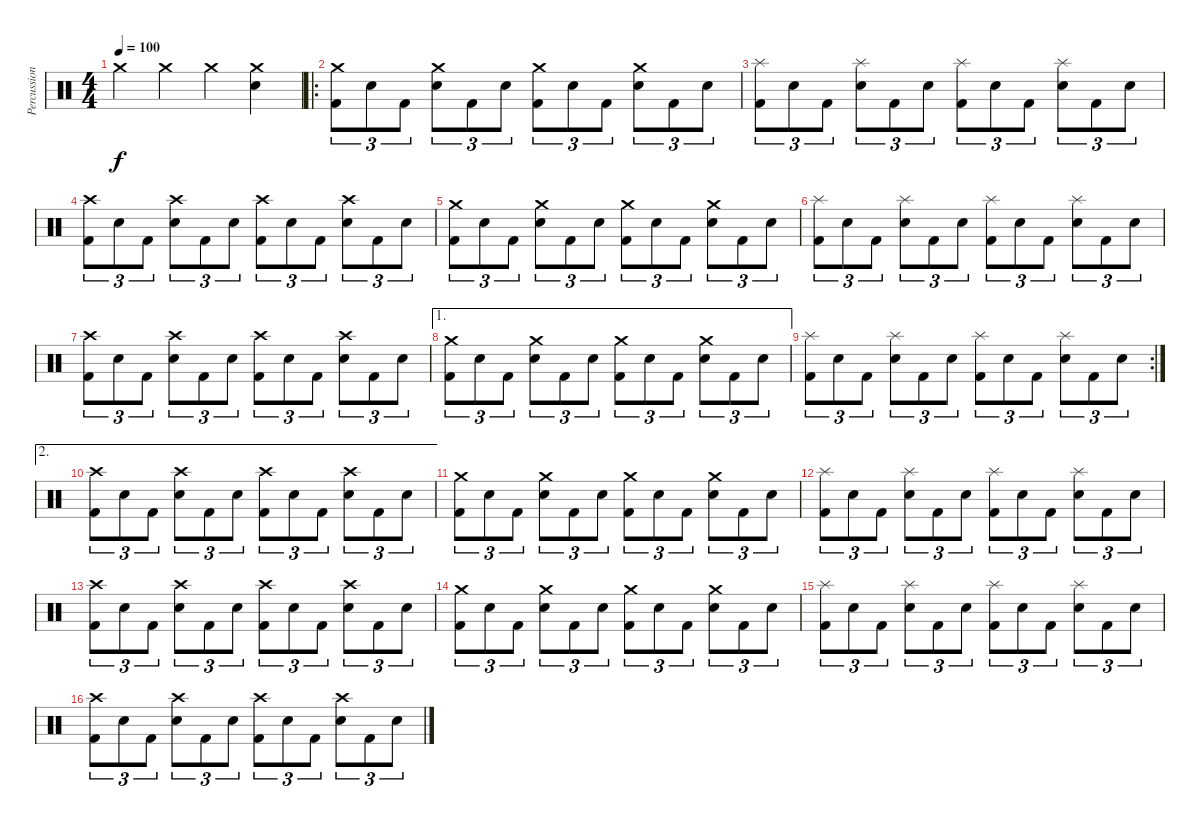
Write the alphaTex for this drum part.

\track ("Percussion" "Percussion") {instrument percussion}
\staff {score}
\articulation defaults
\ts (4 4)
\tempo 100
\clef neutral
\ks c "Crash medium (hit)".4{dy f} "Crash medium (hit)".4 "Crash medium (hit)".4
("Crash medium (hit)" "Snare (hit) 2").4 |
\ro
("Crash medium (hit)" "Kick (hit) 2").8{tu (3 2)} "Snare (hit) 2".8{tu (3 2)} "Kick (hit) 2".8{tu (3 2)} ("Crash medium (hit)" "Snare (hit) 2").8{tu (3 2)} "Kick (hit) 2".8{tu (3 2)} "Snare (hit) 2".8{tu (3 2)} ("Crash medium (hit)" "Kick (hit) 2").8{tu (3 2)} "Snare (hit) 2".8{tu (3 2)} "Kick (hit) 2".8{tu (3 2)} ("Crash medium (hit)" "Snare (hit) 2").8{tu (3 2)} "Kick (hit) 2".8{tu (3 2)} "Snare (hit) 2".8{tu (3 2)} |
("Splash (hit)" "Kick (hit) 2").8{tu (3 2)} "Snare (hit) 2".8{tu (3 2)} "Kick (hit) 2".8{tu (3 2)} ("Splash (hit)" "Snare (hit) 2").8{tu (3 2)} "Kick (hit) 2".8{tu (3 2)} "Snare (hit) 2".8{tu (3 2)} ("Splash (hit)" "Kick (hit) 2").8{tu (3 2)} "Snare (hit) 2".8{tu (3 2)} "Kick (hit) 2".8{tu (3 2)} ("Splash (hit)" "Snare (hit) 2").8{tu (3 2)} "Kick (hit) 2".8{tu (3 2)} "Snare (hit) 2".8{tu (3 2)} |
("Crash high (hit)" "Kick (hit) 2").8{tu (3 2)} "Snare (hit) 2".8{tu (3 2)} "Kick (hit) 2".8{tu (3 2)} ("Crash high (hit)" "Snare (hit) 2").8{tu (3 2)} "Kick (hit) 2".8{tu (3 2)} "Snare (hit) 2".8{tu (3 2)} ("Crash high (hit)" "Kick (hit) 2").8{tu (3 2)} "Snare (hit) 2".8{tu (3 2)} "Kick (hit) 2".8{tu (3 2)} ("Crash high (hit)" "Snare (hit) 2").8{tu (3 2)} "Kick (hit) 2".8{tu (3 2)} "Snare (hit) 2".8{tu (3 2)} |
("Crash medium (hit)" "Kick (hit) 2").8{tu (3 2)} "Snare (hit) 2".8{tu (3 2)} "Kick (hit) 2".8{tu (3 2)} ("Crash medium (hit)" "Snare (hit) 2").8{tu (3 2)} "Kick (hit) 2".8{tu (3 2)} "Snare (hit) 2".8{tu (3 2)} ("Crash medium (hit)" "Kick (hit) 2").8{tu (3 2)} "Snare (hit) 2".8{tu (3 2)} "Kick (hit) 2".8{tu (3 2)} ("Crash medium (hit)" "Snare (hit) 2").8{tu (3 2)} "Kick (hit) 2".8{tu (3 2)} "Snare (hit) 2".8{tu (3 2)} |
("Splash (hit)" "Kick (hit) 2").8{tu (3 2)} "Snare (hit) 2".8{tu (3 2)} "Kick (hit) 2".8{tu (3 2)} ("Splash (hit)" "Snare (hit) 2").8{tu (3 2)} "Kick (hit) 2".8{tu (3 2)} "Snare (hit) 2".8{tu (3 2)} ("Splash (hit)" "Kick (hit) 2").8{tu (3 2)} "Snare (hit) 2".8{tu (3 2)} "Kick (hit) 2".8{tu (3 2)} ("Splash (hit)" "Snare (hit) 2").8{tu (3 2)} "Kick (hit) 2".8{tu (3 2)} "Snare (hit) 2".8{tu (3 2)} |
("Crash high (hit)" "Kick (hit) 2").8{tu (3 2)} "Snare (hit) 2".8{tu (3 2)} "Kick (hit) 2".8{tu (3 2)} ("Crash high (hit)" "Snare (hit) 2").8{tu (3 2)} "Kick (hit) 2".8{tu (3 2)} "Snare (hit) 2".8{tu (3 2)} ("Crash high (hit)" "Kick (hit) 2").8{tu (3 2)} "Snare (hit) 2".8{tu (3 2)} "Kick (hit) 2".8{tu (3 2)} ("Crash high (hit)" "Snare (hit) 2").8{tu (3 2)} "Kick (hit) 2".8{tu (3 2)} "Snare (hit) 2".8{tu (3 2)} |
\ae 1
("Crash medium (hit)" "Kick (hit) 2").8{tu (3 2)} "Snare (hit) 2".8{tu (3 2)} "Kick (hit) 2".8{tu (3 2)} ("Crash medium (hit)" "Snare (hit) 2").8{tu (3 2)} "Kick (hit) 2".8{tu (3 2)} "Snare (hit) 2".8{tu (3 2)} ("Crash medium (hit)" "Kick (hit) 2").8{tu (3 2)} "Snare (hit) 2".8{tu (3 2)} "Kick (hit) 2".8{tu (3 2)} ("Crash medium (hit)" "Snare (hit) 2").8{tu (3 2)} "Kick (hit) 2".8{tu (3 2)} "Snare (hit) 2".8{tu (3 2)} |
\rc 2
("Splash (hit)" "Kick (hit) 2").8{tu (3 2)} "Snare (hit) 2".8{tu (3 2)} "Kick (hit) 2".8{tu (3 2)} ("Splash (hit)" "Snare (hit) 2").8{tu (3 2)} "Kick (hit) 2".8{tu (3 2)} "Snare (hit) 2".8{tu (3 2)} ("Splash (hit)" "Kick (hit) 2").8{tu (3 2)} "Snare (hit) 2".8{tu (3 2)} "Kick (hit) 2".8{tu (3 2)} ("Splash (hit)" "Snare (hit) 2").8{tu (3 2)} "Kick (hit) 2".8{tu (3 2)} "Snare (hit) 2".8{tu (3 2)} |
\ae 2
("Crash high (hit)" "Kick (hit) 2").8{tu (3 2)} "Snare (hit) 2".8{tu (3 2)} "Kick (hit) 2".8{tu (3 2)} ("Crash high (hit)" "Snare (hit) 2").8{tu (3 2)} "Kick (hit) 2".8{tu (3 2)} "Snare (hit) 2".8{tu (3 2)} ("Crash high (hit)" "Kick (hit) 2").8{tu (3 2)} "Snare (hit) 2".8{tu (3 2)} "Kick (hit) 2".8{tu (3 2)} ("Crash high (hit)" "Snare (hit) 2").8{tu (3 2)} "Kick (hit) 2".8{tu (3 2)} "Snare (hit) 2".8{tu (3 2)} |
("Crash medium (hit)" "Kick (hit) 2").8{tu (3 2)} "Snare (hit) 2".8{tu (3 2)} "Kick (hit) 2".8{tu (3 2)} ("Crash medium (hit)" "Snare (hit) 2").8{tu (3 2)} "Kick (hit) 2".8{tu (3 2)} "Snare (hit) 2".8{tu (3 2)} ("Crash medium (hit)" "Kick (hit) 2").8{tu (3 2)} "Snare (hit) 2".8{tu (3 2)} "Kick (hit) 2".8{tu (3 2)} ("Crash medium (hit)" "Snare (hit) 2").8{tu (3 2)} "Kick (hit) 2".8{tu (3 2)} "Snare (hit) 2".8{tu (3 2)} |
("Splash (hit)" "Kick (hit) 2").8{tu (3 2)} "Snare (hit) 2".8{tu (3 2)} "Kick (hit) 2".8{tu (3 2)} ("Splash (hit)" "Snare (hit) 2").8{tu (3 2)} "Kick (hit) 2".8{tu (3 2)} "Snare (hit) 2".8{tu (3 2)} ("Splash (hit)" "Kick (hit) 2").8{tu (3 2)} "Snare (hit) 2".8{tu (3 2)} "Kick (hit) 2".8{tu (3 2)} ("Splash (hit)" "Snare (hit) 2").8{tu (3 2)} "Kick (hit) 2".8{tu (3 2)} "Snare (hit) 2".8{tu (3 2)} |
("Crash high (hit)" "Kick (hit) 2").8{tu (3 2)} "Snare (hit) 2".8{tu (3 2)} "Kick (hit) 2".8{tu (3 2)} ("Crash high (hit)" "Snare (hit) 2").8{tu (3 2)} "Kick (hit) 2".8{tu (3 2)} "Snare (hit) 2".8{tu (3 2)} ("Crash high (hit)" "Kick (hit) 2").8{tu (3 2)} "Snare (hit) 2".8{tu (3 2)} "Kick (hit) 2".8{tu (3 2)} ("Crash high (hit)" "Snare (hit) 2").8{tu (3 2)} "Kick (hit) 2".8{tu (3 2)} "Snare (hit) 2".8{tu (3 2)} |
("Crash medium (hit)" "Kick (hit) 2").8{tu (3 2)} "Snare (hit) 2".8{tu (3 2)} "Kick (hit) 2".8{tu (3 2)} ("Crash medium (hit)" "Snare (hit) 2").8{tu (3 2)} "Kick (hit) 2".8{tu (3 2)} "Snare (hit) 2".8{tu (3 2)} ("Crash medium (hit)" "Kick (hit) 2").8{tu (3 2)} "Snare (hit) 2".8{tu (3 2)} "Kick (hit) 2".8{tu (3 2)} ("Crash medium (hit)" "Snare (hit) 2").8{tu (3 2)} "Kick (hit) 2".8{tu (3 2)} "Snare (hit) 2".8{tu (3 2)} |
("Splash (hit)" "Kick (hit) 2").8{tu (3 2)} "Snare (hit) 2".8{tu (3 2)} "Kick (hit) 2".8{tu (3 2)} ("Splash (hit)" "Snare (hit) 2").8{tu (3 2)} "Kick (hit) 2".8{tu (3 2)} "Snare (hit) 2".8{tu (3 2)} ("Splash (hit)" "Kick (hit) 2").8{tu (3 2)} "Snare (hit) 2".8{tu (3 2)} "Kick (hit) 2".8{tu (3 2)} ("Splash (hit)" "Snare (hit) 2").8{tu (3 2)} "Kick (hit) 2".8{tu (3 2)} "Snare (hit) 2".8{tu (3 2)} |
("Crash high (hit)" "Kick (hit) 2").8{tu (3 2)} "Snare (hit) 2".8{tu (3 2)} "Kick (hit) 2".8{tu (3 2)} ("Crash high (hit)" "Snare (hit) 2").8{tu (3 2)} "Kick (hit) 2".8{tu (3 2)} "Snare (hit) 2".8{tu (3 2)} ("Crash high (hit)" "Kick (hit) 2").8{tu (3 2)} "Snare (hit) 2".8{tu (3 2)} "Kick (hit) 2".8{tu (3 2)} ("Crash high (hit)" "Snare (hit) 2").8{tu (3 2)} "Kick (hit) 2".8{tu (3 2)} "Snare (hit) 2".8{tu (3 2)}
